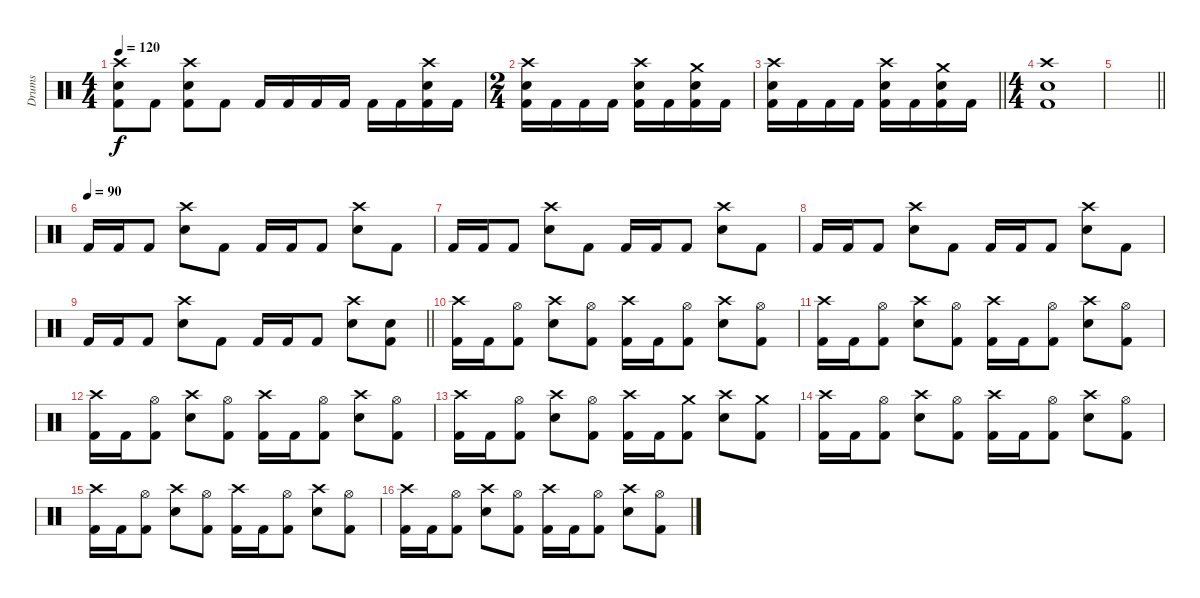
\track ("Drums" "Drums") {instrument percussion}
\staff {score}
\articulation defaults
\ts (4 4)
\tempo 120
\clef neutral
\ks c
("Crash high (hit)" "Electric Snare (hit)" "Kick (hit) 2").8{dy f} "Kick (hit) 2".8 ("Crash high (hit)" "Electric Snare (hit)" "Kick (hit) 2").8 "Kick (hit) 2".8 "Kick (hit) 2".16 "Kick (hit) 2".16 "Kick (hit) 2".16 "Kick (hit) 2".16 "Kick (hit) 2".16 "Kick (hit) 2".16 ("Crash high (hit)" "Electric Snare (hit)" "Kick (hit) 2").16 "Kick (hit) 2".16 |
\ts (2 4)
("Crash high (hit)" "Electric Snare (hit)" "Kick (hit) 2").16 "Kick (hit) 2".16 "Kick (hit) 2".16 "Kick (hit) 2".16 ("Crash high (hit)" "Electric Snare (hit)" "Kick (hit) 2").16 "Kick (hit) 2".16 ("Crash medium (hit)" "Electric Snare (hit)" "Kick (hit) 2").16 "Kick (hit) 2".16 |
\barLineRight lightlight
("Crash high (hit)" "Electric Snare (hit)" "Kick (hit) 2").16 "Kick (hit) 2".16 "Kick (hit) 2".16 "Kick (hit) 2".16 ("Crash high (hit)" "Electric Snare (hit)" "Kick (hit) 2").16 "Kick (hit) 2".16 ("Crash medium (hit)" "Electric Snare (hit)" "Kick (hit) 2").16 "Kick (hit) 2".16 |
\ts (4 4)
("Crash high (hit)" "Electric Snare (hit)" "Kick (hit) 2").1 |
\barLineRight lightlight
|
\tempo (90)
"Kick (hit) 2".16 "Kick (hit) 2".16 "Kick (hit) 2".8 ("Crash high (hit)" "Electric Snare (hit)").8 "Kick (hit) 2".8 "Kick (hit) 2".16 "Kick (hit) 2".16 "Kick (hit) 2".8 ("Crash high (hit)" "Electric Snare (hit)").8 "Kick (hit) 2".8 |
"Kick (hit) 2".16 "Kick (hit) 2".16 "Kick (hit) 2".8 ("Crash high (hit)" "Electric Snare (hit)").8 "Kick (hit) 2".8 "Kick (hit) 2".16 "Kick (hit) 2".16 "Kick (hit) 2".8 ("Crash high (hit)" "Electric Snare (hit)").8 "Kick (hit) 2".8 |
"Kick (hit) 2".16 "Kick (hit) 2".16 "Kick (hit) 2".8 ("Crash high (hit)" "Electric Snare (hit)").8 "Kick (hit) 2".8 "Kick (hit) 2".16 "Kick (hit) 2".16 "Kick (hit) 2".8 ("Crash high (hit)" "Electric Snare (hit)").8 "Kick (hit) 2".8 |
\barLineRight lightlight "Kick (hit) 2".16 "Kick (hit) 2".16 "Kick (hit) 2".8
("Crash high (hit)" "Electric Snare (hit)").8 "Kick (hit) 2".8 "Kick (hit) 2".16 "Kick (hit) 2".16 "Kick (hit) 2".8 ("Crash high (hit)" "Electric Snare (hit)").8 ("Electric Snare (hit)" "Kick (hit) 2").8 |
("Crash high (hit)" "Kick (hit) 2").16 "Kick (hit) 2".16 ("Hi-Hat (open)" "Kick (hit) 2").8 ("Crash high (hit)" "Electric Snare (hit)").8 ("Hi-Hat (open)" "Kick (hit) 2").8 ("Crash high (hit)" "Kick (hit) 2").16 "Kick (hit) 2".16 ("Hi-Hat (open)" "Kick (hit) 2").8 ("Crash high (hit)" "Electric Snare (hit)").8 ("Hi-Hat (open)" "Kick (hit) 2").8 |
("Crash high (hit)" "Kick (hit) 2").16 "Kick (hit) 2".16 ("Hi-Hat (open)" "Kick (hit) 2").8 ("Crash high (hit)" "Electric Snare (hit)").8 ("Hi-Hat (open)" "Kick (hit) 2").8 ("Crash high (hit)" "Kick (hit) 2").16 "Kick (hit) 2".16 ("Hi-Hat (open)" "Kick (hit) 2").8 ("Crash high (hit)" "Electric Snare (hit)").8 ("Hi-Hat (open)" "Kick (hit) 2").8 |
("Crash high (hit)" "Kick (hit) 2").16 "Kick (hit) 2".16 ("Hi-Hat (open)" "Kick (hit) 2").8 ("Crash high (hit)" "Electric Snare (hit)").8 ("Hi-Hat (open)" "Kick (hit) 2").8 ("Crash high (hit)" "Kick (hit) 2").16 "Kick (hit) 2".16 ("Hi-Hat (open)" "Kick (hit) 2").8 ("Crash high (hit)" "Electric Snare (hit)").8 ("Hi-Hat (open)" "Kick (hit) 2").8 |
("Crash high (hit)" "Kick (hit) 2").16 "Kick (hit) 2".16 ("Hi-Hat (open)" "Kick (hit) 2").8 ("Crash high (hit)" "Electric Snare (hit)").8 ("Hi-Hat (open)" "Kick (hit) 2").8 ("Crash high (hit)" "Kick (hit) 2").16 "Kick (hit) 2".16 ("Crash medium (hit)" "Kick (hit) 2").8 ("Crash high (hit)" "Electric Snare (hit)").8 ("Crash medium (hit)" "Kick (hit) 2").8 |
("Crash high (hit)" "Kick (hit) 2").16 "Kick (hit) 2".16 ("Hi-Hat (open)" "Kick (hit) 2").8 ("Crash high (hit)" "Electric Snare (hit)").8 ("Hi-Hat (open)" "Kick (hit) 2").8 ("Crash high (hit)" "Kick (hit) 2").16 "Kick (hit) 2".16 ("Hi-Hat (open)" "Kick (hit) 2").8 ("Crash high (hit)" "Electric Snare (hit)").8 ("Hi-Hat (open)" "Kick (hit) 2").8 |
("Crash high (hit)" "Kick (hit) 2").16 "Kick (hit) 2".16 ("Hi-Hat (open)" "Kick (hit) 2").8 ("Crash high (hit)" "Electric Snare (hit)").8 ("Hi-Hat (open)" "Kick (hit) 2").8 ("Crash high (hit)" "Kick (hit) 2").16 "Kick (hit) 2".16 ("Hi-Hat (open)" "Kick (hit) 2").8 ("Crash high (hit)" "Electric Snare (hit)").8 ("Hi-Hat (open)" "Kick (hit) 2").8 |
("Crash high (hit)" "Kick (hit) 2").16 "Kick (hit) 2".16 ("Hi-Hat (open)" "Kick (hit) 2").8 ("Crash high (hit)" "Electric Snare (hit)").8 ("Hi-Hat (open)" "Kick (hit) 2").8 ("Crash high (hit)" "Kick (hit) 2").16 "Kick (hit) 2".16 ("Hi-Hat (open)" "Kick (hit) 2").8 ("Crash high (hit)" "Electric Snare (hit)").8 ("Hi-Hat (open)" "Kick (hit) 2").8
